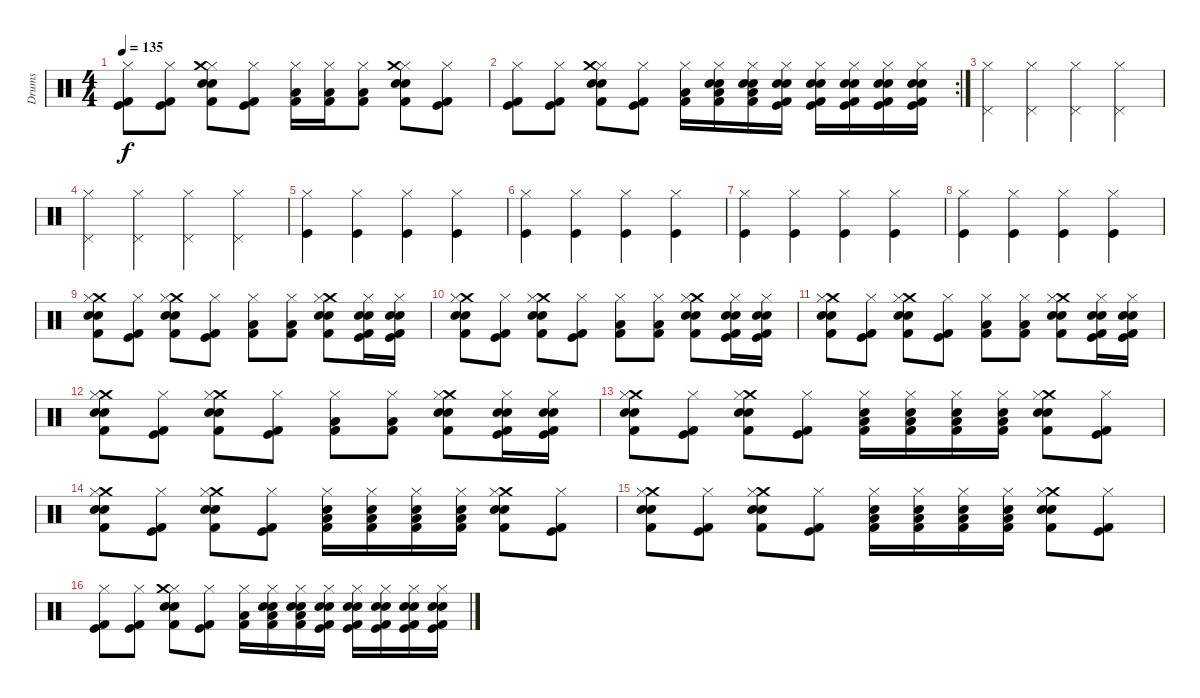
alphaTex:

\track ("Drums" "Drums") {instrument percussion}
\staff {score}
\articulation defaults
\ts (4 4)
\tempo 135
\clef neutral
\ks c
("Hi-Hat (closed)" "Kick (hit)" "Kick (hit) 2").8{dy f} ("Hi-Hat (closed)" "Kick (hit)" "Kick (hit) 2").8 ("Hi-Hat (closed)" "Electric Snare (hit)" "Crash medium (hit)" "Snare (hit) 2" "Kick (hit) 2").8 ("Hi-Hat (closed)" "Kick (hit)" "Kick (hit) 2").8 ("Hi-Hat (closed)" "Low Floor Tom (hit)" "Kick (hit) 2").16 ("Hi-Hat (closed)" "Low Floor Tom (hit)" "Kick (hit) 2").16 ("Hi-Hat (closed)" "Low Floor Tom (hit)" "Kick (hit) 2").8 ("Hi-Hat (closed)" "Electric Snare (hit)" "Crash medium (hit)" "Snare (hit) 2" "Kick (hit) 2").8 ("Hi-Hat (closed)" "Kick (hit)" "Kick (hit) 2").8 |
\rc 2
("Hi-Hat (closed)" "Kick (hit)" "Kick (hit) 2").8 ("Hi-Hat (closed)" "Kick (hit)" "Kick (hit) 2").8 ("Hi-Hat (closed)" "Electric Snare (hit)" "Crash medium (hit)" "Snare (hit) 2" "Kick (hit) 2").8 ("Hi-Hat (closed)" "Kick (hit)" "Kick (hit) 2").8 ("Hi-Hat (closed)" "Low Floor Tom (hit)" "Kick (hit) 2").16 ("Electric Snare (hit)" "Snare (hit) 2" "Hi-Hat (closed)" "Low Floor Tom (hit)" "Kick (hit) 2").16 ("Electric Snare (hit)" "Snare (hit) 2" "Hi-Hat (closed)" "Low Floor Tom (hit)" "Kick (hit) 2").16 ("Electric Snare (hit)" "Snare (hit) 2" "Hi-Hat (closed)" "Kick (hit)" "Kick (hit) 2").16 ("Electric Snare (hit)" "Snare (hit) 2" "Hi-Hat (closed)" "Kick (hit)" "Kick (hit) 2").16 ("Electric Snare (hit)" "Snare (hit) 2" "Hi-Hat (closed)" "Kick (hit)" "Kick (hit) 2").16 ("Electric Snare (hit)" "Snare (hit) 2" "Hi-Hat (closed)" "Kick (hit)" "Kick (hit) 2").16 ("Electric Snare (hit)" "Snare (hit) 2" "Hi-Hat (closed)" "Kick (hit)" "Kick (hit) 2").16 |
("Hi-Hat (closed)" "Pedal Hi-Hat (hit)").4 ("Hi-Hat (closed)" "Pedal Hi-Hat (hit)").4 ("Hi-Hat (closed)" "Pedal Hi-Hat (hit)").4 ("Hi-Hat (closed)" "Pedal Hi-Hat (hit)").4 |
("Hi-Hat (closed)" "Pedal Hi-Hat (hit)").4 ("Hi-Hat (closed)" "Pedal Hi-Hat (hit)").4 ("Hi-Hat (closed)" "Pedal Hi-Hat (hit)").4 ("Hi-Hat (closed)" "Pedal Hi-Hat (hit)").4 |
("Hi-Hat (closed)" "Kick (hit)").4 ("Hi-Hat (closed)" "Kick (hit)").4 ("Hi-Hat (closed)" "Kick (hit)").4 ("Hi-Hat (closed)" "Kick (hit)").4 |
("Hi-Hat (closed)" "Kick (hit)").4 ("Hi-Hat (closed)" "Kick (hit)").4 ("Hi-Hat (closed)" "Kick (hit)").4 ("Hi-Hat (closed)" "Kick (hit)").4 |
("Hi-Hat (closed)" "Kick (hit)").4 ("Hi-Hat (closed)" "Kick (hit)").4 ("Hi-Hat (closed)" "Kick (hit)").4 ("Hi-Hat (closed)" "Kick (hit)").4 |
("Hi-Hat (closed)" "Kick (hit)").4 ("Hi-Hat (closed)" "Kick (hit)").4 ("Hi-Hat (closed)" "Kick (hit)").4 ("Hi-Hat (closed)" "Kick (hit)").4 |
("Kick (hit) 2" "Snare (hit) 2" "Crash medium (hit)" "Hi-Hat (closed)" "Electric Snare (hit)").8 ("Hi-Hat (closed)" "Kick (hit)" "Kick (hit) 2").8 ("Kick (hit) 2" "Snare (hit) 2" "Crash medium (hit)" "Hi-Hat (closed)" "Electric Snare (hit)").8 ("Hi-Hat (closed)" "Kick (hit)" "Kick (hit) 2").8 ("Hi-Hat (closed)" "Low Floor Tom (hit)" "Kick (hit) 2").8 ("Hi-Hat (closed)" "Low Floor Tom (hit)" "Kick (hit) 2").8 ("Kick (hit) 2" "Snare (hit) 2" "Crash medium (hit)" "Hi-Hat (closed)" "Electric Snare (hit)").8 ("Electric Snare (hit)" "Snare (hit) 2" "Hi-Hat (closed)" "Kick (hit)" "Kick (hit) 2").16 ("Electric Snare (hit)" "Snare (hit) 2" "Hi-Hat (closed)" "Kick (hit)" "Kick (hit) 2").16 |
("Kick (hit) 2" "Snare (hit) 2" "Crash medium (hit)" "Hi-Hat (closed)" "Electric Snare (hit)").8 ("Hi-Hat (closed)" "Kick (hit)" "Kick (hit) 2").8 ("Kick (hit) 2" "Snare (hit) 2" "Crash medium (hit)" "Hi-Hat (closed)" "Electric Snare (hit)").8 ("Hi-Hat (closed)" "Kick (hit)" "Kick (hit) 2").8 ("Hi-Hat (closed)" "Low Floor Tom (hit)" "Kick (hit) 2").8 ("Hi-Hat (closed)" "Low Floor Tom (hit)" "Kick (hit) 2").8 ("Kick (hit) 2" "Snare (hit) 2" "Crash medium (hit)" "Hi-Hat (closed)" "Electric Snare (hit)").8 ("Electric Snare (hit)" "Snare (hit) 2" "Hi-Hat (closed)" "Kick (hit)" "Kick (hit) 2").16 ("Electric Snare (hit)" "Snare (hit) 2" "Hi-Hat (closed)" "Kick (hit)" "Kick (hit) 2").16 |
("Kick (hit) 2" "Snare (hit) 2" "Crash medium (hit)" "Hi-Hat (closed)" "Electric Snare (hit)").8 ("Hi-Hat (closed)" "Kick (hit)" "Kick (hit) 2").8 ("Kick (hit) 2" "Snare (hit) 2" "Crash medium (hit)" "Hi-Hat (closed)" "Electric Snare (hit)").8 ("Hi-Hat (closed)" "Kick (hit)" "Kick (hit) 2").8 ("Hi-Hat (closed)" "Low Floor Tom (hit)" "Kick (hit) 2").8 ("Hi-Hat (closed)" "Low Floor Tom (hit)" "Kick (hit) 2").8 ("Kick (hit) 2" "Snare (hit) 2" "Crash medium (hit)" "Hi-Hat (closed)" "Electric Snare (hit)").8 ("Electric Snare (hit)" "Snare (hit) 2" "Hi-Hat (closed)" "Kick (hit)" "Kick (hit) 2").16 ("Electric Snare (hit)" "Snare (hit) 2" "Hi-Hat (closed)" "Kick (hit)" "Kick (hit) 2").16 |
("Kick (hit) 2" "Snare (hit) 2" "Crash medium (hit)" "Hi-Hat (closed)" "Electric Snare (hit)").8 ("Hi-Hat (closed)" "Kick (hit)" "Kick (hit) 2").8 ("Kick (hit) 2" "Snare (hit) 2" "Crash medium (hit)" "Hi-Hat (closed)" "Electric Snare (hit)").8 ("Hi-Hat (closed)" "Kick (hit)" "Kick (hit) 2").8 ("Hi-Hat (closed)" "Low Floor Tom (hit)" "Kick (hit) 2").8 ("Hi-Hat (closed)" "Low Floor Tom (hit)" "Kick (hit) 2").8 ("Kick (hit) 2" "Snare (hit) 2" "Crash medium (hit)" "Hi-Hat (closed)" "Electric Snare (hit)").8 ("Electric Snare (hit)" "Snare (hit) 2" "Hi-Hat (closed)" "Kick (hit)" "Kick (hit) 2").16 ("Electric Snare (hit)" "Snare (hit) 2" "Hi-Hat (closed)" "Kick (hit)" "Kick (hit) 2").16 |
("Kick (hit) 2" "Snare (hit) 2" "Crash medium (hit)" "Hi-Hat (closed)" "Electric Snare (hit)").8 ("Hi-Hat (closed)" "Kick (hit)" "Kick (hit) 2").8 ("Kick (hit) 2" "Snare (hit) 2" "Crash medium (hit)" "Hi-Hat (closed)" "Electric Snare (hit)").8 ("Hi-Hat (closed)" "Kick (hit)" "Kick (hit) 2").8 ("Snare (hit) 2" "Hi-Hat (closed)" "Low Floor Tom (hit)" "Kick (hit) 2").16 ("Snare (hit) 2" "Hi-Hat (closed)" "Low Floor Tom (hit)" "Kick (hit) 2").16 ("Snare (hit) 2" "Hi-Hat (closed)" "Low Floor Tom (hit)" "Kick (hit) 2").16 ("Snare (hit) 2" "Hi-Hat (closed)" "Low Floor Tom (hit)" "Kick (hit) 2").16 ("Kick (hit) 2" "Snare (hit) 2" "Crash medium (hit)" "Hi-Hat (closed)" "Electric Snare (hit)").8 ("Hi-Hat (closed)" "Kick (hit)" "Kick (hit) 2").8 |
("Kick (hit) 2" "Snare (hit) 2" "Crash medium (hit)" "Hi-Hat (closed)" "Electric Snare (hit)").8 ("Hi-Hat (closed)" "Kick (hit)" "Kick (hit) 2").8 ("Kick (hit) 2" "Snare (hit) 2" "Crash medium (hit)" "Hi-Hat (closed)" "Electric Snare (hit)").8 ("Hi-Hat (closed)" "Kick (hit)" "Kick (hit) 2").8 ("Snare (hit) 2" "Hi-Hat (closed)" "Low Floor Tom (hit)" "Kick (hit) 2").16 ("Snare (hit) 2" "Hi-Hat (closed)" "Low Floor Tom (hit)" "Kick (hit) 2").16 ("Snare (hit) 2" "Hi-Hat (closed)" "Low Floor Tom (hit)" "Kick (hit) 2").16 ("Snare (hit) 2" "Hi-Hat (closed)" "Low Floor Tom (hit)" "Kick (hit) 2").16 ("Kick (hit) 2" "Snare (hit) 2" "Crash medium (hit)" "Hi-Hat (closed)" "Electric Snare (hit)").8 ("Hi-Hat (closed)" "Kick (hit)" "Kick (hit) 2").8 |
("Kick (hit) 2" "Snare (hit) 2" "Crash medium (hit)" "Hi-Hat (closed)" "Electric Snare (hit)").8 ("Hi-Hat (closed)" "Kick (hit)" "Kick (hit) 2").8 ("Kick (hit) 2" "Snare (hit) 2" "Crash medium (hit)" "Hi-Hat (closed)" "Electric Snare (hit)").8 ("Hi-Hat (closed)" "Kick (hit)" "Kick (hit) 2").8 ("Snare (hit) 2" "Hi-Hat (closed)" "Low Floor Tom (hit)" "Kick (hit) 2").16 ("Snare (hit) 2" "Hi-Hat (closed)" "Low Floor Tom (hit)" "Kick (hit) 2").16 ("Snare (hit) 2" "Hi-Hat (closed)" "Low Floor Tom (hit)" "Kick (hit) 2").16 ("Snare (hit) 2" "Hi-Hat (closed)" "Low Floor Tom (hit)" "Kick (hit) 2").16 ("Kick (hit) 2" "Snare (hit) 2" "Crash medium (hit)" "Hi-Hat (closed)" "Electric Snare (hit)").8 ("Hi-Hat (closed)" "Kick (hit)" "Kick (hit) 2").8 |
("Hi-Hat (closed)" "Kick (hit)" "Kick (hit) 2").8 ("Hi-Hat (closed)" "Kick (hit)" "Kick (hit) 2").8 ("Hi-Hat (closed)" "Electric Snare (hit)" "Crash medium (hit)" "Snare (hit) 2" "Kick (hit) 2").8 ("Hi-Hat (closed)" "Kick (hit)" "Kick (hit) 2").8 ("Hi-Hat (closed)" "Low Floor Tom (hit)" "Kick (hit) 2").16 ("Electric Snare (hit)" "Snare (hit) 2" "Hi-Hat (closed)" "Low Floor Tom (hit)" "Kick (hit) 2").16 ("Electric Snare (hit)" "Snare (hit) 2" "Hi-Hat (closed)" "Low Floor Tom (hit)" "Kick (hit) 2").16 ("Electric Snare (hit)" "Snare (hit) 2" "Hi-Hat (closed)" "Kick (hit)" "Kick (hit) 2").16 ("Electric Snare (hit)" "Snare (hit) 2" "Hi-Hat (closed)" "Kick (hit)" "Kick (hit) 2").16 ("Electric Snare (hit)" "Snare (hit) 2" "Hi-Hat (closed)" "Kick (hit)" "Kick (hit) 2").16 ("Electric Snare (hit)" "Snare (hit) 2" "Hi-Hat (closed)" "Kick (hit)" "Kick (hit) 2").16 ("Electric Snare (hit)" "Snare (hit) 2" "Hi-Hat (closed)" "Kick (hit)" "Kick (hit) 2").16
